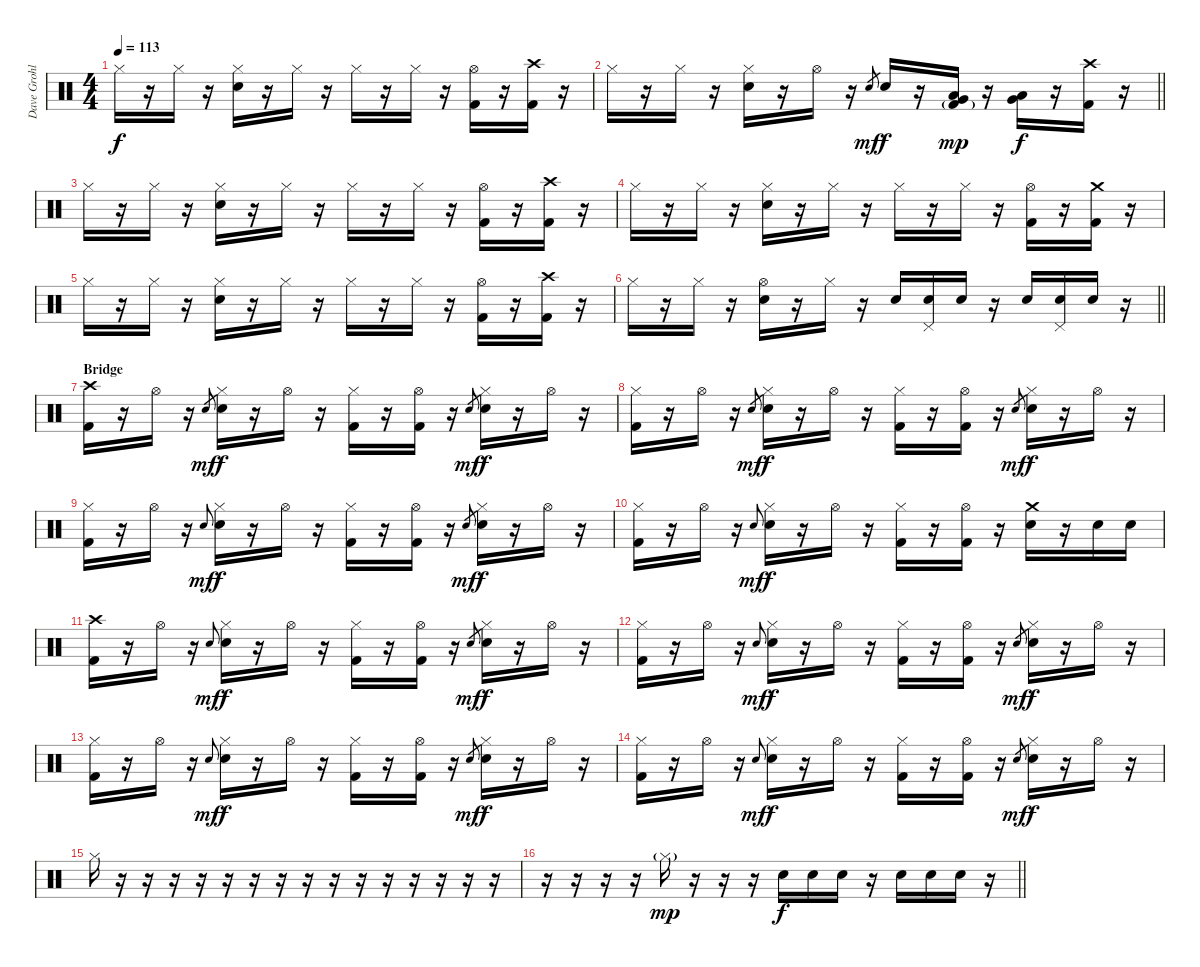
\track ("Dave Grohl" "Dave Grohl") {instrument percussion}
\staff {score}
\articulation defaults
\ts (4 4)
\tempo 113
\clef neutral
\ks c "Hi-Hat (closed)".16{dy f}
r.16 "Hi-Hat (closed)".16 r.16 ("Hi-Hat (closed)" "Electric Snare (hit)").16 r.16 "Hi-Hat (closed)".16 r.16 "Hi-Hat (closed)".16 r.16 "Hi-Hat (closed)".16 r.16 ("Hi-Hat (open)" "Kick (hit) 2").16 r.16 ("Crash high (hit)" "Kick (hit) 2").16 r.16 |
\barLineRight lightlight "Hi-Hat (closed)".16
r.16 "Hi-Hat (closed)".16 r.16 ("Hi-Hat (closed)" "Electric Snare (hit)").16 r.16 "Hi-Hat (open)".16 r.16 "Electric Snare (hit)".8{gr dy mf} "Electric Snare (hit)".16{dy f} r.16 ("Very Low Tom (hit)" "Low Tom (hit)" "Kick (hit) 2"{g}).16{dy mp} r.16 ("Very Low Tom (hit)" "Low Tom (hit)").16{dy f} r.16 ("Crash high (hit)" "Kick (hit) 2").16 r.16 |
"Hi-Hat (closed)".16 r.16 "Hi-Hat (closed)".16 r.16 ("Hi-Hat (closed)" "Electric Snare (hit)").16 r.16 "Hi-Hat (closed)".16 r.16 "Hi-Hat (closed)".16 r.16 "Hi-Hat (closed)".16 r.16 ("Hi-Hat (open)" "Kick (hit) 2").16 r.16 ("Crash high (hit)" "Kick (hit) 2").16 r.16 |
"Hi-Hat (closed)".16 r.16 "Hi-Hat (closed)".16 r.16 ("Hi-Hat (closed)" "Electric Snare (hit)").16 r.16 "Hi-Hat (closed)".16 r.16 "Hi-Hat (closed)".16 r.16 "Hi-Hat (closed)".16 r.16 ("Hi-Hat (open)" "Kick (hit) 2").16 r.16 ("Crash medium (hit)" "Kick (hit) 2").16 r.16 |
"Hi-Hat (closed)".16 r.16 "Hi-Hat (closed)".16 r.16 ("Hi-Hat (closed)" "Electric Snare (hit)").16 r.16 "Hi-Hat (closed)".16 r.16 "Hi-Hat (closed)".16 r.16 "Hi-Hat (closed)".16 r.16 ("Hi-Hat (open)" "Kick (hit) 2").16 r.16 ("Crash high (hit)" "Kick (hit) 2").16 r.16 |
\barLineRight lightlight "Hi-Hat (closed)".16
r.16 "Hi-Hat (closed)".16 r.16 ("Hi-Hat (open)" "Electric Snare (hit)").16 r.16 "Hi-Hat (closed)".16 r.16 "Electric Snare (hit)".16 ("Pedal Hi-Hat (hit)" "Electric Snare (hit)").16 "Electric Snare (hit)".16 r.16 "Electric Snare (hit)".16 ("Pedal Hi-Hat (hit)" "Electric Snare (hit)").16 "Electric Snare (hit)".16 r.16 |
\section ("" "Bridge")
("Crash high (hit)" "Kick (hit) 2").16 r.16 "Hi-Hat (open)".16 r.16 "Electric Snare (hit)".8{gr dy mf} ("Hi-Hat (closed)" "Electric Snare (hit)").16{dy f} r.16 "Hi-Hat (open)".16 r.16 ("Hi-Hat (closed)" "Kick (hit) 2").16 r.16 ("Hi-Hat (open)" "Kick (hit) 2").16 r.16 "Electric Snare (hit)".8{gr dy mf} ("Hi-Hat (closed)" "Electric Snare (hit)").16{dy f} r.16 "Hi-Hat (open)".16 r.16 |
("Hi-Hat (closed)" "Kick (hit) 2").16 r.16 "Hi-Hat (open)".16 r.16 "Electric Snare (hit)".8{gr dy mf} ("Hi-Hat (closed)" "Electric Snare (hit)").16{dy f} r.16 "Hi-Hat (open)".16 r.16 ("Hi-Hat (closed)" "Kick (hit) 2").16 r.16 ("Hi-Hat (open)" "Kick (hit) 2").16 r.16 "Electric Snare (hit)".8{gr dy mf} ("Hi-Hat (closed)" "Electric Snare (hit)").16{dy f} r.16 "Hi-Hat (open)".16 r.16 |
("Hi-Hat (closed)" "Kick (hit) 2").16 r.16 "Hi-Hat (open)".16 r.16 "Electric Snare (hit)".8{gr onbeat dy mf} ("Hi-Hat (closed)" "Electric Snare (hit)").16{dy f} r.16 "Hi-Hat (open)".16 r.16 ("Hi-Hat (closed)" "Kick (hit) 2").16 r.16 ("Hi-Hat (open)" "Kick (hit) 2").16 r.16 "Electric Snare (hit)".8{gr dy mf} ("Hi-Hat (closed)" "Electric Snare (hit)").16{dy f} r.16 "Hi-Hat (open)".16 r.16 |
("Hi-Hat (closed)" "Kick (hit) 2").16 r.16 "Hi-Hat (open)".16 r.16 "Electric Snare (hit)".8{gr onbeat dy mf} ("Hi-Hat (closed)" "Electric Snare (hit)").16{dy f} r.16 "Hi-Hat (open)".16 r.16 ("Hi-Hat (closed)" "Kick (hit) 2").16 r.16 ("Hi-Hat (open)" "Kick (hit) 2").16 r.16 ("Crash medium (hit)" "Electric Snare (hit)").16 r.16 "Electric Snare (hit)".16 "Electric Snare (hit)".16 |
("Crash high (hit)" "Kick (hit) 2").16 r.16 "Hi-Hat (open)".16 r.16 "Electric Snare (hit)".8{gr onbeat dy mf} ("Hi-Hat (closed)" "Electric Snare (hit)").16{dy f} r.16 "Hi-Hat (open)".16 r.16 ("Hi-Hat (closed)" "Kick (hit) 2").16 r.16 ("Hi-Hat (open)" "Kick (hit) 2").16 r.16 "Electric Snare (hit)".8{gr dy mf} ("Hi-Hat (closed)" "Electric Snare (hit)").16{dy f} r.16 "Hi-Hat (open)".16 r.16 |
("Hi-Hat (closed)" "Kick (hit) 2").16 r.16 "Hi-Hat (open)".16 r.16 "Electric Snare (hit)".8{gr onbeat dy mf} ("Hi-Hat (closed)" "Electric Snare (hit)").16{dy f} r.16 "Hi-Hat (open)".16 r.16 ("Hi-Hat (closed)" "Kick (hit) 2").16 r.16 ("Hi-Hat (open)" "Kick (hit) 2").16 r.16 "Electric Snare (hit)".8{gr dy mf} ("Hi-Hat (closed)" "Electric Snare (hit)").16{dy f} r.16 "Hi-Hat (open)".16 r.16 |
("Hi-Hat (closed)" "Kick (hit) 2").16 r.16 "Hi-Hat (open)".16 r.16 "Electric Snare (hit)".8{gr onbeat dy mf} ("Hi-Hat (closed)" "Electric Snare (hit)").16{dy f} r.16 "Hi-Hat (open)".16 r.16 ("Hi-Hat (closed)" "Kick (hit) 2").16 r.16 ("Hi-Hat (open)" "Kick (hit) 2").16 r.16 "Electric Snare (hit)".8{gr dy mf} ("Hi-Hat (closed)" "Electric Snare (hit)").16{dy f} r.16 "Hi-Hat (open)".16 r.16 |
("Hi-Hat (closed)" "Kick (hit) 2").16 r.16 "Hi-Hat (open)".16 r.16 "Electric Snare (hit)".8{gr onbeat dy mf} ("Hi-Hat (closed)" "Electric Snare (hit)").16{dy f} r.16 "Hi-Hat (open)".16 r.16 ("Hi-Hat (closed)" "Kick (hit) 2").16 r.16 ("Hi-Hat (open)" "Kick (hit) 2").16 r.16 "Electric Snare (hit)".8{gr dy mf} ("Hi-Hat (closed)" "Electric Snare (hit)").16{dy f} r.16 "Hi-Hat (open)".16 r.16 |
"Hi-Hat (closed)".16 r.16 r.16 r.16 r.16 r.16 r.16 r.16 r.16 r.16 r.16 r.16 r.16 r.16 r.16 r.16 |
\barLineRight lightlight
r.16 r.16 r.16 r.16 "Hi-Hat (closed)"{g}.16{dy mp} r.16 r.16 r.16 "Electric Snare (hit)".16{dy f} "Electric Snare (hit)".16 "Electric Snare (hit)".16 r.16 "Electric Snare (hit)".16 "Electric Snare (hit)".16 "Electric Snare (hit)".16 r.16
